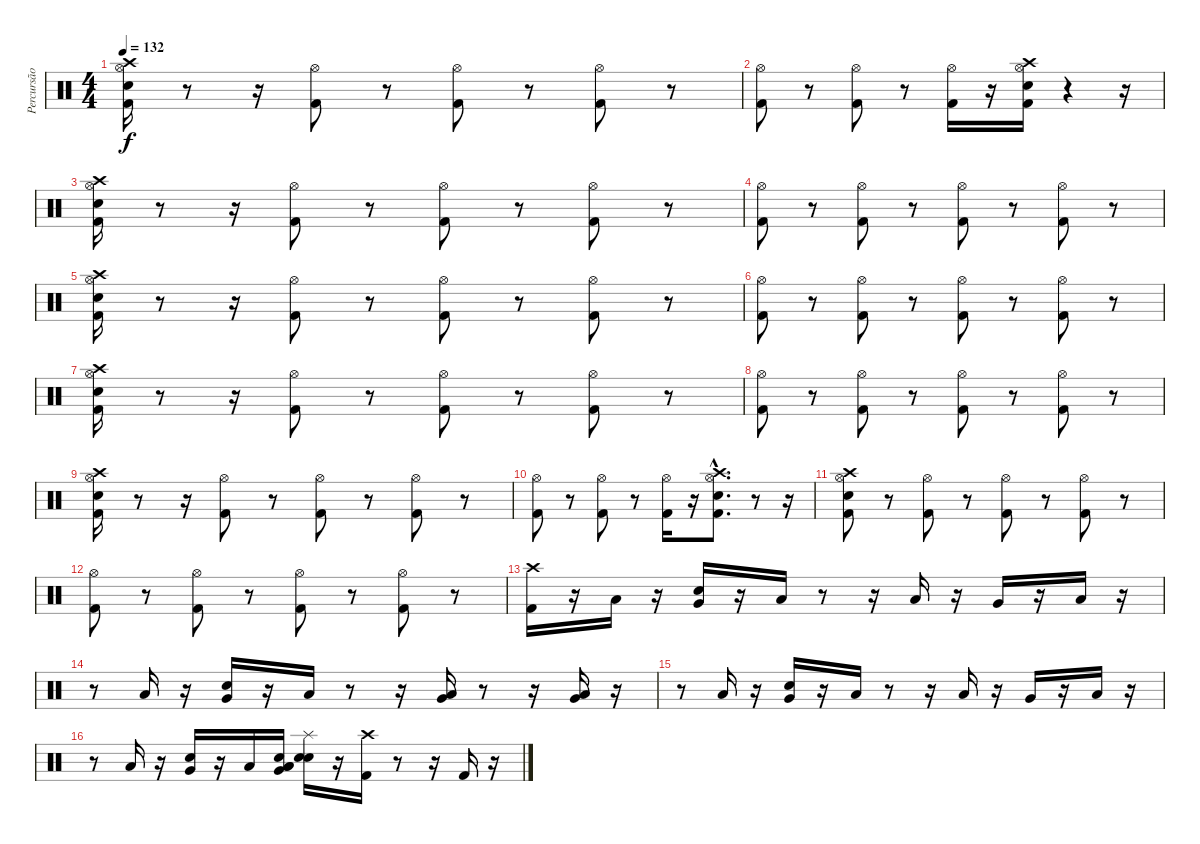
\track ("Percursão" "Percursão") {instrument percussion}
\staff {score}
\articulation defaults
\ts (4 4)
\tempo 132
\clef neutral
\ks c
("Crash high (hit)" "Kick (hit) 2" "Snare (hit) 2" "Hi-Hat (open)").16{dy f} r.8 r.16 ("Kick (hit) 2" "Hi-Hat (open)").8 r.8 ("Kick (hit) 2" "Hi-Hat (open)").8 r.8 ("Kick (hit) 2" "Hi-Hat (open)").8 r.8 |
("Kick (hit) 2" "Hi-Hat (open)").8 r.8 ("Kick (hit) 2" "Hi-Hat (open)").8 r.8 ("Kick (hit) 2" "Hi-Hat (open)").16 r.16 ("Crash high (hit)" "Kick (hit) 2" "Snare (hit) 2" "Hi-Hat (open)").16 r.4 r.16 |
("Crash high (hit)" "Kick (hit) 2" "Snare (hit) 2" "Hi-Hat (open)").16 r.8 r.16 ("Kick (hit) 2" "Hi-Hat (open)").8 r.8 ("Kick (hit) 2" "Hi-Hat (open)").8 r.8 ("Kick (hit) 2" "Hi-Hat (open)").8 r.8 |
("Kick (hit) 2" "Hi-Hat (open)").8 r.8 ("Kick (hit) 2" "Hi-Hat (open)").8 r.8 ("Kick (hit) 2" "Hi-Hat (open)").8 r.8 ("Kick (hit) 2" "Hi-Hat (open)").8 r.8 |
("Crash high (hit)" "Kick (hit) 2" "Hi-Hat (open)" "Snare (hit) 2").16 r.8 r.16 ("Kick (hit) 2" "Hi-Hat (open)").8 r.8 ("Kick (hit) 2" "Hi-Hat (open)").8 r.8 ("Kick (hit) 2" "Hi-Hat (open)").8 r.8 |
("Kick (hit) 2" "Hi-Hat (open)").8 r.8 ("Kick (hit) 2" "Hi-Hat (open)").8 r.8 ("Kick (hit) 2" "Hi-Hat (open)").8 r.8 ("Kick (hit) 2" "Hi-Hat (open)").8 r.8 |
("Crash high (hit)" "Kick (hit) 2" "Snare (hit) 2" "Hi-Hat (open)").16 r.8 r.16 ("Kick (hit) 2" "Hi-Hat (open)").8 r.8 ("Kick (hit) 2" "Hi-Hat (open)").8 r.8 ("Kick (hit) 2" "Hi-Hat (open)").8 r.8 |
("Kick (hit) 2" "Hi-Hat (open)").8 r.8 ("Kick (hit) 2" "Hi-Hat (open)").8 r.8 ("Kick (hit) 2" "Hi-Hat (open)").8 r.8 ("Kick (hit) 2" "Hi-Hat (open)").8 r.8 |
("Crash high (hit)" "Kick (hit) 2" "Snare (hit) 2" "Hi-Hat (open)").16 r.8 r.16 ("Kick (hit) 2" "Hi-Hat (open)").8 r.8 ("Kick (hit) 2" "Hi-Hat (open)").8 r.8 ("Kick (hit) 2" "Hi-Hat (open)").8 r.8 |
("Kick (hit) 2" "Hi-Hat (open)").8 r.8 ("Kick (hit) 2" "Hi-Hat (open)").8 r.8 ("Kick (hit) 2" "Hi-Hat (open)").16 r.16 ("Crash high (hit)"{hac} "Kick (hit) 2"{hac} "Snare (hit) 2"{hac} "Hi-Hat (open)"{hac}).8{d} r.8 r.16 |
("Crash high (hit)" "Kick (hit) 2" "Hi-Hat (open)" "Snare (hit) 2").8 r.8 ("Kick (hit) 2" "Hi-Hat (open)").8 r.8 ("Kick (hit) 2" "Hi-Hat (open)").8 r.8 ("Kick (hit) 2" "Hi-Hat (open)").8 r.8 |
("Kick (hit) 2" "Hi-Hat (open)").8 r.8 ("Kick (hit) 2" "Hi-Hat (open)").8 r.8 ("Kick (hit) 2" "Hi-Hat (open)").8 r.8 ("Kick (hit) 2" "Hi-Hat (open)").8 r.8 |
("Kick (hit) 2" "Crash high (hit)").16 r.16 "Low Tom (hit)".16 r.16 ("Very Low Tom (hit)" "Snare (hit) 2").16 r.16 "Low Floor Tom (hit)".16 r.8 r.16 "Low Tom (hit)".16 r.16 "Very Low Tom (hit)".16 r.16 "Low Floor Tom (hit)".16 r.16 |
r.8 "Low Tom (hit)".16 r.16 ("Very Low Tom (hit)" "Snare (hit) 2").16 r.16 "Low Floor Tom (hit)".16 r.8 r.16 ("Low Floor Tom (hit)" "Very Low Tom (hit)").16 r.8 r.16 ("Very Low Tom (hit)" "Low Floor Tom (hit)").16 r.16 |
r.8 "Low Tom (hit)".16 r.16 ("Very Low Tom (hit)" "Snare (hit) 2").16 r.16 "Low Floor Tom (hit)".16 r.8 r.16 "Low Tom (hit)".16 r.16 "Very Low Tom (hit)".16 r.16 "Low Floor Tom (hit)".16 r.16 |
r.8 "Low Tom (hit)".16 r.16 ("Very Low Tom (hit)" "Snare (hit) 2").16 r.16 "Low Floor Tom (hit)".16 ("Snare (hit)" "Low Tom (hit)" "Very Low Tom (hit)" "Low Floor Tom (hit)").16 ("Snare (hit)" "Splash (hit)" "Snare (hit) 2").16 r.16 ("Crash high (hit)" "Kick (hit) 2").16 r.8 r.16 "Kick (hit) 2".16 r.16
